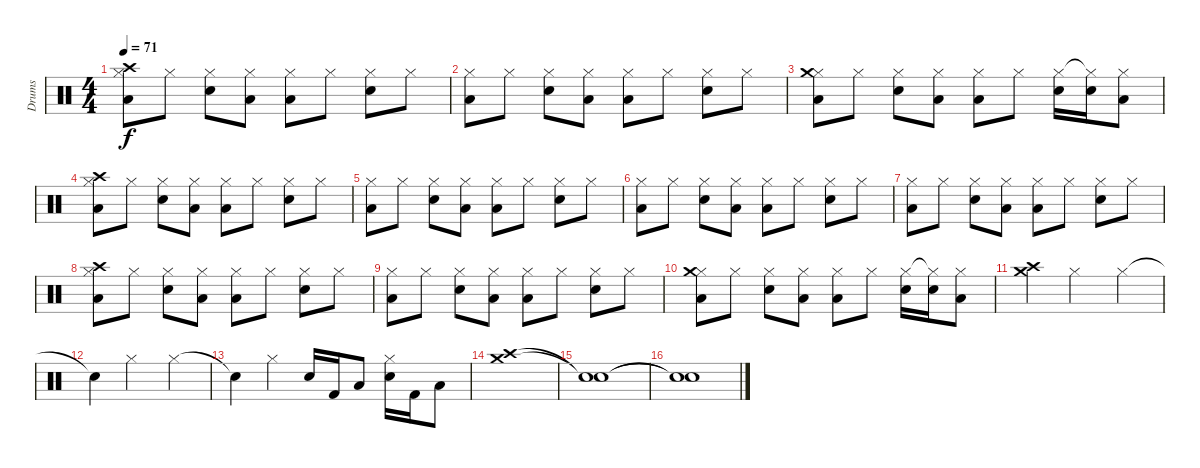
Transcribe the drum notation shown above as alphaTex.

\track ("Drums" "Drums") {instrument percussion}
\staff {score}
\articulation defaults
\ts (4 4)
\tempo 71
\clef neutral
\ks c
("Hi-Hat (closed)" "Low Tom (hit)" "Crash high (hit)").8{dy f} "Hi-Hat (closed)".8 ("Hi-Hat (closed)" "Snare (hit) 2").8 ("Hi-Hat (closed)" "Low Tom (hit)").8 ("Hi-Hat (closed)" "Low Tom (hit)").8 "Hi-Hat (closed)".8 ("Hi-Hat (closed)" "Snare (hit) 2").8 "Hi-Hat (closed)".8 |
("Hi-Hat (closed)" "Low Tom (hit)").8 "Hi-Hat (closed)".8 ("Hi-Hat (closed)" "Snare (hit) 2").8 ("Hi-Hat (closed)" "Low Tom (hit)").8 ("Hi-Hat (closed)" "Low Tom (hit)").8 "Hi-Hat (closed)".8 ("Hi-Hat (closed)" "Snare (hit) 2").8 "Hi-Hat (closed)".8 |
("Hi-Hat (closed)" "Low Tom (hit)" "Crash medium (hit)").8 "Hi-Hat (closed)".8 ("Hi-Hat (closed)" "Snare (hit) 2").8 ("Hi-Hat (closed)" "Low Tom (hit)").8 ("Hi-Hat (closed)" "Low Tom (hit)").8 "Hi-Hat (closed)".8 ("Hi-Hat (closed)" "Snare (hit) 2").16 ("Hi-Hat (closed)"{t} "Snare (hit) 2").16 ("Hi-Hat (closed)" "Low Tom (hit)").8 |
("Hi-Hat (closed)" "Low Tom (hit)" "Crash high (hit)").8 "Hi-Hat (closed)".8 ("Hi-Hat (closed)" "Snare (hit) 2").8 ("Hi-Hat (closed)" "Low Tom (hit)").8 ("Hi-Hat (closed)" "Low Tom (hit)").8 "Hi-Hat (closed)".8 ("Hi-Hat (closed)" "Snare (hit) 2").8 "Hi-Hat (closed)".8 |
("Hi-Hat (closed)" "Low Tom (hit)").8 "Hi-Hat (closed)".8 ("Hi-Hat (closed)" "Snare (hit) 2").8 ("Hi-Hat (closed)" "Low Tom (hit)").8 ("Hi-Hat (closed)" "Low Tom (hit)").8 "Hi-Hat (closed)".8 ("Hi-Hat (closed)" "Snare (hit) 2").8 "Hi-Hat (closed)".8 |
("Hi-Hat (closed)" "Low Tom (hit)").8 "Hi-Hat (closed)".8 ("Hi-Hat (closed)" "Snare (hit) 2").8 ("Hi-Hat (closed)" "Low Tom (hit)").8 ("Hi-Hat (closed)" "Low Tom (hit)").8 "Hi-Hat (closed)".8 ("Hi-Hat (closed)" "Snare (hit) 2").8 "Hi-Hat (closed)".8 |
("Hi-Hat (closed)" "Low Tom (hit)").8 "Hi-Hat (closed)".8 ("Hi-Hat (closed)" "Snare (hit) 2").8 ("Hi-Hat (closed)" "Low Tom (hit)").8 ("Hi-Hat (closed)" "Low Tom (hit)").8 "Hi-Hat (closed)".8 ("Hi-Hat (closed)" "Snare (hit) 2").8 "Hi-Hat (closed)".8 |
("Hi-Hat (closed)" "Low Tom (hit)" "Crash high (hit)").8 "Hi-Hat (closed)".8 ("Hi-Hat (closed)" "Snare (hit) 2").8 ("Hi-Hat (closed)" "Low Tom (hit)").8 ("Hi-Hat (closed)" "Low Tom (hit)").8 "Hi-Hat (closed)".8 ("Hi-Hat (closed)" "Snare (hit) 2").8 "Hi-Hat (closed)".8 |
("Hi-Hat (closed)" "Low Tom (hit)").8 "Hi-Hat (closed)".8 ("Hi-Hat (closed)" "Snare (hit) 2").8 ("Hi-Hat (closed)" "Low Tom (hit)").8 ("Hi-Hat (closed)" "Low Tom (hit)").8 "Hi-Hat (closed)".8 ("Hi-Hat (closed)" "Snare (hit) 2").8 "Hi-Hat (closed)".8 |
("Hi-Hat (closed)" "Low Tom (hit)" "Crash medium (hit)").8 "Hi-Hat (closed)".8 ("Hi-Hat (closed)" "Snare (hit) 2").8 ("Hi-Hat (closed)" "Low Tom (hit)").8 ("Hi-Hat (closed)" "Low Tom (hit)").8 "Hi-Hat (closed)".8 ("Hi-Hat (closed)" "Snare (hit) 2").16 ("Hi-Hat (closed)"{t} "Snare (hit) 2").16 ("Hi-Hat (closed)" "Low Tom (hit)").8 |
("Crash medium (hit)" "Crash high (hit)").4 "Hi-Hat (closed)".2 "Hi-Hat (closed)".4 |
"Snare (hit)"{t}.4 "Hi-Hat (closed)".2 "Hi-Hat (closed)".4 |
"Snare (hit)"{t}.4 "Hi-Hat (closed)".4 "Snare (hit) 2".16 "Kick (hit) 2".16 "Low Tom (hit)".8 ("Hi-Hat (closed)" "Snare (hit) 2").16 "Kick (hit) 2".16 "Low Tom (hit)".8 |
("Crash medium (hit)" "Crash high (hit)").1 |
("Snare (hit)"{t} "Snare (hit)"{t}).1 |
("Snare (hit)"{t} "Snare (hit)"{t}).1
